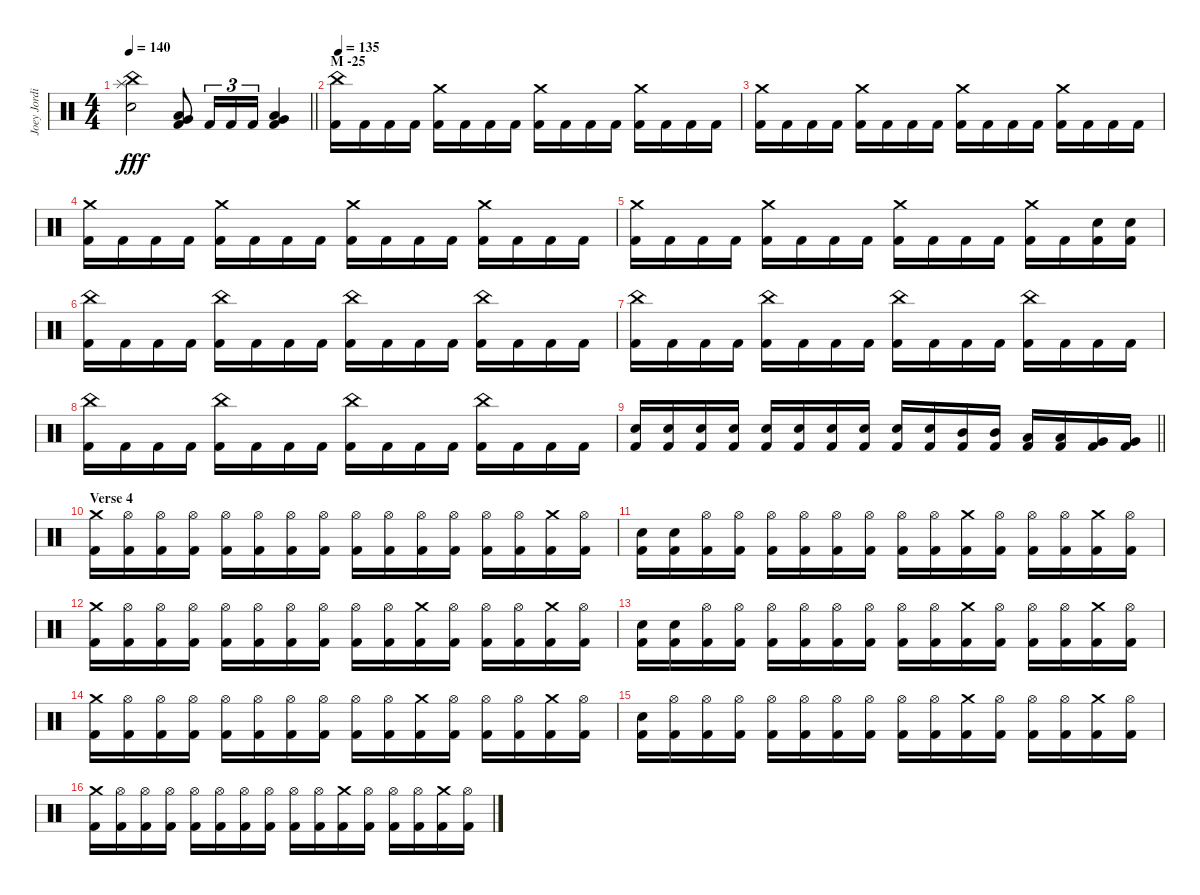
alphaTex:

\track ("Joey Jordison" "Joey Jordi") {instrument percussion}
\staff {score}
\articulation defaults
\ts (4 4)
\tempo 140
\clef neutral
\barLineRight lightlight
\ks c
("China (hit)" "Splash (hit)" "Electric Snare (hit)").2{dy fff} ("Very Low Tom (hit)" "Low Floor Tom (hit)" "Kick (hit) 2").8 "Kick (hit) 2".16{tu (3 2)} "Kick (hit) 2".16{tu (3 2)} "Kick (hit) 2".16{tu (3 2)} ("Very Low Tom (hit)" "Low Floor Tom (hit)" "Kick (hit) 2").4 |
\section ("" "M -25")
\tempo 135
("China (hit)" "Kick (hit) 2").16{volume 13} "Kick (hit) 2".16 "Kick (hit) 2".16 "Kick (hit) 2".16 ("Crash medium (hit)" "Kick (hit) 2").16 "Kick (hit) 2".16 "Kick (hit) 2".16 "Kick (hit) 2".16 ("Crash medium (hit)" "Kick (hit) 2").16 "Kick (hit) 2".16 "Kick (hit) 2".16 "Kick (hit) 2".16 ("Crash medium (hit)" "Kick (hit) 2").16 "Kick (hit) 2".16 "Kick (hit) 2".16 "Kick (hit) 2".16 |
("Crash medium (hit)" "Kick (hit) 2").16 "Kick (hit) 2".16 "Kick (hit) 2".16 "Kick (hit) 2".16 ("Crash medium (hit)" "Kick (hit) 2").16 "Kick (hit) 2".16 "Kick (hit) 2".16 "Kick (hit) 2".16 ("Crash medium (hit)" "Kick (hit) 2").16 "Kick (hit) 2".16 "Kick (hit) 2".16 "Kick (hit) 2".16 ("Crash medium (hit)" "Kick (hit) 2").16 "Kick (hit) 2".16 "Kick (hit) 2".16 "Kick (hit) 2".16 |
("Crash medium (hit)" "Kick (hit) 2").16 "Kick (hit) 2".16 "Kick (hit) 2".16 "Kick (hit) 2".16 ("Crash medium (hit)" "Kick (hit) 2").16 "Kick (hit) 2".16 "Kick (hit) 2".16 "Kick (hit) 2".16 ("Crash medium (hit)" "Kick (hit) 2").16 "Kick (hit) 2".16 "Kick (hit) 2".16 "Kick (hit) 2".16 ("Crash medium (hit)" "Kick (hit) 2").16 "Kick (hit) 2".16 "Kick (hit) 2".16 "Kick (hit) 2".16 |
("Crash medium (hit)" "Kick (hit) 2").16 "Kick (hit) 2".16 "Kick (hit) 2".16 "Kick (hit) 2".16 ("Crash medium (hit)" "Kick (hit) 2").16 "Kick (hit) 2".16 "Kick (hit) 2".16 "Kick (hit) 2".16 ("Crash medium (hit)" "Kick (hit) 2").16 "Kick (hit) 2".16 "Kick (hit) 2".16 "Kick (hit) 2".16 ("Crash medium (hit)" "Kick (hit) 2").16 "Kick (hit) 2".16 ("Electric Snare (hit)" "Kick (hit) 2").16 ("Electric Snare (hit)" "Kick (hit) 2").16 |
("China (hit)" "Kick (hit) 2").16 "Kick (hit) 2".16 "Kick (hit) 2".16 "Kick (hit) 2".16 ("China (hit)" "Kick (hit) 2").16 "Kick (hit) 2".16 "Kick (hit) 2".16 "Kick (hit) 2".16 ("China (hit)" "Kick (hit) 2").16 "Kick (hit) 2".16 "Kick (hit) 2".16 "Kick (hit) 2".16 ("China (hit)" "Kick (hit) 2").16 "Kick (hit) 2".16 "Kick (hit) 2".16 "Kick (hit) 2".16 |
("China (hit)" "Kick (hit) 2").16 "Kick (hit) 2".16 "Kick (hit) 2".16 "Kick (hit) 2".16 ("China (hit)" "Kick (hit) 2").16 "Kick (hit) 2".16 "Kick (hit) 2".16 "Kick (hit) 2".16 ("China (hit)" "Kick (hit) 2").16 "Kick (hit) 2".16 "Kick (hit) 2".16 "Kick (hit) 2".16 ("China (hit)" "Kick (hit) 2").16 "Kick (hit) 2".16 "Kick (hit) 2".16 "Kick (hit) 2".16 |
("China (hit)" "Kick (hit) 2").16 "Kick (hit) 2".16 "Kick (hit) 2".16 "Kick (hit) 2".16 ("China (hit)" "Kick (hit) 2").16 "Kick (hit) 2".16 "Kick (hit) 2".16 "Kick (hit) 2".16 ("China (hit)" "Kick (hit) 2").16 "Kick (hit) 2".16 "Kick (hit) 2".16 "Kick (hit) 2".16 ("China (hit)" "Kick (hit) 2").16 "Kick (hit) 2".16 "Kick (hit) 2".16 "Kick (hit) 2".16 |
\barLineRight lightlight
("Electric Snare (hit)" "Kick (hit) 2").16 ("Electric Snare (hit)" "Kick (hit) 2").16 ("Electric Snare (hit)" "Kick (hit) 2").16 ("Electric Snare (hit)" "Kick (hit) 2").16 ("Electric Snare (hit)" "Kick (hit) 2").16 ("Electric Snare (hit)" "Kick (hit) 2").16 ("Electric Snare (hit)" "Kick (hit) 2").16 ("Electric Snare (hit)" "Kick (hit) 2").16 ("Electric Snare (hit)" "Kick (hit) 2").16 ("Electric Snare (hit)" "Kick (hit) 2").16 ("Mid Tom (hit)" "Kick (hit) 2").16 ("Mid Tom (hit)" "Kick (hit) 2").16 ("Low Tom (hit)" "Kick (hit) 2").16 ("Low Tom (hit)" "Kick (hit) 2").16 ("Very Low Tom (hit)" "Kick (hit) 2").16 ("Very Low Tom (hit)" "Kick (hit) 2").16 |
\section ("" "Verse 4")
("Crash medium (hit)" "Kick (hit) 2").16 ("Hi-Hat (open)" "Kick (hit) 2").16 ("Hi-Hat (open)" "Kick (hit) 2").16 ("Hi-Hat (open)" "Kick (hit) 2").16 ("Hi-Hat (open)" "Kick (hit) 2").16 ("Hi-Hat (open)" "Kick (hit) 2").16 ("Hi-Hat (open)" "Kick (hit) 2").16 ("Hi-Hat (open)" "Kick (hit) 2").16 ("Hi-Hat (open)" "Kick (hit) 2").16 ("Hi-Hat (open)" "Kick (hit) 2").16 ("Hi-Hat (open)" "Kick (hit) 2").16 ("Hi-Hat (open)" "Kick (hit) 2").16 ("Hi-Hat (open)" "Kick (hit) 2").16 ("Hi-Hat (open)" "Kick (hit) 2").16 ("Crash medium (hit)" "Kick (hit) 2").16 ("Hi-Hat (open)" "Kick (hit) 2").16 |
("Electric Snare (hit)" "Kick (hit) 2").16 ("Electric Snare (hit)" "Kick (hit) 2").16 ("Hi-Hat (open)" "Kick (hit) 2").16 ("Hi-Hat (open)" "Kick (hit) 2").16 ("Hi-Hat (open)" "Kick (hit) 2").16 ("Hi-Hat (open)" "Kick (hit) 2").16 ("Hi-Hat (open)" "Kick (hit) 2").16 ("Hi-Hat (open)" "Kick (hit) 2").16 ("Hi-Hat (open)" "Kick (hit) 2").16 ("Hi-Hat (open)" "Kick (hit) 2").16 ("Crash medium (hit)" "Kick (hit) 2").16 ("Hi-Hat (open)" "Kick (hit) 2").16 ("Hi-Hat (open)" "Kick (hit) 2").16 ("Hi-Hat (open)" "Kick (hit) 2").16 ("Crash medium (hit)" "Kick (hit) 2").16 ("Hi-Hat (open)" "Kick (hit) 2").16 |
("Crash medium (hit)" "Kick (hit) 2").16 ("Hi-Hat (open)" "Kick (hit) 2").16 ("Hi-Hat (open)" "Kick (hit) 2").16 ("Hi-Hat (open)" "Kick (hit) 2").16 ("Hi-Hat (open)" "Kick (hit) 2").16 ("Hi-Hat (open)" "Kick (hit) 2").16 ("Hi-Hat (open)" "Kick (hit) 2").16 ("Hi-Hat (open)" "Kick (hit) 2").16 ("Hi-Hat (open)" "Kick (hit) 2").16 ("Hi-Hat (open)" "Kick (hit) 2").16 ("Crash medium (hit)" "Kick (hit) 2").16 ("Hi-Hat (open)" "Kick (hit) 2").16 ("Hi-Hat (open)" "Kick (hit) 2").16 ("Hi-Hat (open)" "Kick (hit) 2").16 ("Crash medium (hit)" "Kick (hit) 2").16 ("Hi-Hat (open)" "Kick (hit) 2").16 |
("Electric Snare (hit)" "Kick (hit) 2").16 ("Electric Snare (hit)" "Kick (hit) 2").16 ("Hi-Hat (open)" "Kick (hit) 2").16 ("Hi-Hat (open)" "Kick (hit) 2").16 ("Hi-Hat (open)" "Kick (hit) 2").16 ("Hi-Hat (open)" "Kick (hit) 2").16 ("Hi-Hat (open)" "Kick (hit) 2").16 ("Hi-Hat (open)" "Kick (hit) 2").16 ("Hi-Hat (open)" "Kick (hit) 2").16 ("Hi-Hat (open)" "Kick (hit) 2").16 ("Crash medium (hit)" "Kick (hit) 2").16 ("Hi-Hat (open)" "Kick (hit) 2").16 ("Hi-Hat (open)" "Kick (hit) 2").16 ("Hi-Hat (open)" "Kick (hit) 2").16 ("Crash medium (hit)" "Kick (hit) 2").16 ("Hi-Hat (open)" "Kick (hit) 2").16 |
("Crash medium (hit)" "Kick (hit) 2").16 ("Hi-Hat (open)" "Kick (hit) 2").16 ("Hi-Hat (open)" "Kick (hit) 2").16 ("Hi-Hat (open)" "Kick (hit) 2").16 ("Hi-Hat (open)" "Kick (hit) 2").16 ("Hi-Hat (open)" "Kick (hit) 2").16 ("Hi-Hat (open)" "Kick (hit) 2").16 ("Hi-Hat (open)" "Kick (hit) 2").16 ("Hi-Hat (open)" "Kick (hit) 2").16 ("Hi-Hat (open)" "Kick (hit) 2").16 ("Crash medium (hit)" "Kick (hit) 2").16 ("Hi-Hat (open)" "Kick (hit) 2").16 ("Hi-Hat (open)" "Kick (hit) 2").16 ("Hi-Hat (open)" "Kick (hit) 2").16 ("Crash medium (hit)" "Kick (hit) 2").16 ("Hi-Hat (open)" "Kick (hit) 2").16 |
("Electric Snare (hit)" "Kick (hit) 2").16 ("Hi-Hat (open)" "Kick (hit) 2").16 ("Hi-Hat (open)" "Kick (hit) 2").16 ("Hi-Hat (open)" "Kick (hit) 2").16 ("Hi-Hat (open)" "Kick (hit) 2").16 ("Hi-Hat (open)" "Kick (hit) 2").16 ("Hi-Hat (open)" "Kick (hit) 2").16 ("Hi-Hat (open)" "Kick (hit) 2").16 ("Hi-Hat (open)" "Kick (hit) 2").16 ("Hi-Hat (open)" "Kick (hit) 2").16 ("Crash medium (hit)" "Kick (hit) 2").16 ("Hi-Hat (open)" "Kick (hit) 2").16 ("Hi-Hat (open)" "Kick (hit) 2").16 ("Hi-Hat (open)" "Kick (hit) 2").16 ("Crash medium (hit)" "Kick (hit) 2").16 ("Hi-Hat (open)" "Kick (hit) 2").16 |
("Crash medium (hit)" "Kick (hit) 2").16 ("Hi-Hat (open)" "Kick (hit) 2").16 ("Hi-Hat (open)" "Kick (hit) 2").16 ("Hi-Hat (open)" "Kick (hit) 2").16 ("Hi-Hat (open)" "Kick (hit) 2").16 ("Hi-Hat (open)" "Kick (hit) 2").16 ("Hi-Hat (open)" "Kick (hit) 2").16 ("Hi-Hat (open)" "Kick (hit) 2").16 ("Hi-Hat (open)" "Kick (hit) 2").16 ("Hi-Hat (open)" "Kick (hit) 2").16 ("Crash medium (hit)" "Kick (hit) 2").16 ("Hi-Hat (open)" "Kick (hit) 2").16 ("Hi-Hat (open)" "Kick (hit) 2").16 ("Hi-Hat (open)" "Kick (hit) 2").16 ("Crash medium (hit)" "Kick (hit) 2").16 ("Hi-Hat (open)" "Kick (hit) 2").16
